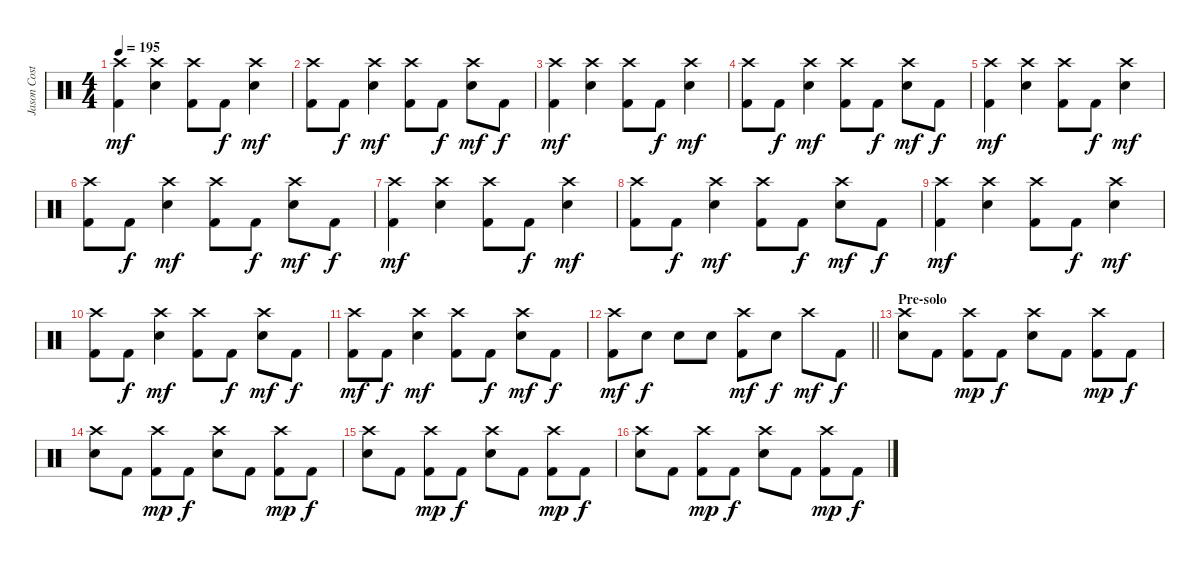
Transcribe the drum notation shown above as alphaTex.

\track ("Jason Costa" "Jason Cost") {instrument percussion}
\staff {score}
\articulation defaults
\ts (4 4)
\tempo 195
\clef neutral
\ks c
("Crash high (hit)" "Kick (hit) 2").4{dy mf} ("Crash high (hit)" "Electric Snare (hit)").4 ("Crash high (hit)" "Kick (hit) 2").8 "Kick (hit) 2".8{dy f} ("Crash high (hit)" "Electric Snare (hit)").4{dy mf} |
("Crash high (hit)" "Kick (hit) 2").8 "Kick (hit) 2".8{dy f} ("Crash high (hit)" "Electric Snare (hit)").4{dy mf} ("Crash high (hit)" "Kick (hit) 2").8 "Kick (hit) 2".8{dy f} ("Crash high (hit)" "Electric Snare (hit)").8{dy mf} "Kick (hit) 2".8{dy f} |
("Crash high (hit)" "Kick (hit) 2").4{dy mf} ("Crash high (hit)" "Electric Snare (hit)").4 ("Crash high (hit)" "Kick (hit) 2").8 "Kick (hit) 2".8{dy f} ("Crash high (hit)" "Electric Snare (hit)").4{dy mf} |
("Crash high (hit)" "Kick (hit) 2").8 "Kick (hit) 2".8{dy f} ("Crash high (hit)" "Electric Snare (hit)").4{dy mf} ("Crash high (hit)" "Kick (hit) 2").8 "Kick (hit) 2".8{dy f} ("Crash high (hit)" "Electric Snare (hit)").8{dy mf} "Kick (hit) 2".8{dy f} |
("Crash high (hit)" "Kick (hit) 2").4{dy mf} ("Crash high (hit)" "Electric Snare (hit)").4 ("Crash high (hit)" "Kick (hit) 2").8 "Kick (hit) 2".8{dy f} ("Crash high (hit)" "Electric Snare (hit)").4{dy mf} |
("Crash high (hit)" "Kick (hit) 2").8 "Kick (hit) 2".8{dy f} ("Crash high (hit)" "Electric Snare (hit)").4{dy mf} ("Crash high (hit)" "Kick (hit) 2").8 "Kick (hit) 2".8{dy f} ("Crash high (hit)" "Electric Snare (hit)").8{dy mf} "Kick (hit) 2".8{dy f} |
("Crash high (hit)" "Kick (hit) 2").4{dy mf} ("Crash high (hit)" "Electric Snare (hit)").4 ("Crash high (hit)" "Kick (hit) 2").8 "Kick (hit) 2".8{dy f} ("Crash high (hit)" "Electric Snare (hit)").4{dy mf} |
("Crash high (hit)" "Kick (hit) 2").8 "Kick (hit) 2".8{dy f} ("Crash high (hit)" "Electric Snare (hit)").4{dy mf} ("Crash high (hit)" "Kick (hit) 2").8 "Kick (hit) 2".8{dy f} ("Crash high (hit)" "Electric Snare (hit)").8{dy mf} "Kick (hit) 2".8{dy f} |
("Crash high (hit)" "Kick (hit) 2").4{dy mf} ("Crash high (hit)" "Electric Snare (hit)").4 ("Crash high (hit)" "Kick (hit) 2").8 "Kick (hit) 2".8{dy f} ("Crash high (hit)" "Electric Snare (hit)").4{dy mf} |
("Crash high (hit)" "Kick (hit) 2").8 "Kick (hit) 2".8{dy f} ("Crash high (hit)" "Electric Snare (hit)").4{dy mf} ("Crash high (hit)" "Kick (hit) 2").8 "Kick (hit) 2".8{dy f} ("Crash high (hit)" "Electric Snare (hit)").8{dy mf} "Kick (hit) 2".8{dy f} |
("Crash high (hit)" "Kick (hit) 2").8{dy mf} "Kick (hit) 2".8{dy f} ("Crash high (hit)" "Electric Snare (hit)").4{dy mf} ("Crash high (hit)" "Kick (hit) 2").8 "Kick (hit) 2".8{dy f} ("Crash high (hit)" "Electric Snare (hit)").8{dy mf} "Kick (hit) 2".8{dy f} |
\barLineRight lightlight
("Crash high (hit)" "Kick (hit) 2").8{dy mf} "Electric Snare (hit)".8{dy f} "Electric Snare (hit)".8 "Electric Snare (hit)".8 ("Crash high (hit)" "Kick (hit) 2").8{dy mf} "Electric Snare (hit)".8{dy f} "Crash high (hit)".8{dy mf} "Kick (hit) 2".8{dy f} |
\section ("" "Pre-solo")
("Crash high (hit)" "Electric Snare (hit)").8 "Kick (hit) 2".8 ("Crash high (hit)" "Kick (hit) 2").8{dy mp} "Kick (hit) 2".8{dy f} ("Crash high (hit)" "Electric Snare (hit)").8 "Kick (hit) 2".8 ("Crash high (hit)" "Kick (hit) 2").8{dy mp} "Kick (hit) 2".8{dy f} |
("Crash high (hit)" "Electric Snare (hit)").8 "Kick (hit) 2".8 ("Crash high (hit)" "Kick (hit) 2").8{dy mp} "Kick (hit) 2".8{dy f} ("Crash high (hit)" "Electric Snare (hit)").8 "Kick (hit) 2".8 ("Crash high (hit)" "Kick (hit) 2").8{dy mp} "Kick (hit) 2".8{dy f} |
("Crash high (hit)" "Electric Snare (hit)").8 "Kick (hit) 2".8 ("Crash high (hit)" "Kick (hit) 2").8{dy mp} "Kick (hit) 2".8{dy f} ("Crash high (hit)" "Electric Snare (hit)").8 "Kick (hit) 2".8 ("Crash high (hit)" "Kick (hit) 2").8{dy mp} "Kick (hit) 2".8{dy f} |
("Crash high (hit)" "Electric Snare (hit)").8 "Kick (hit) 2".8 ("Crash high (hit)" "Kick (hit) 2").8{dy mp} "Kick (hit) 2".8{dy f} ("Crash high (hit)" "Electric Snare (hit)").8 "Kick (hit) 2".8 ("Crash high (hit)" "Kick (hit) 2").8{dy mp} "Kick (hit) 2".8{dy f}
